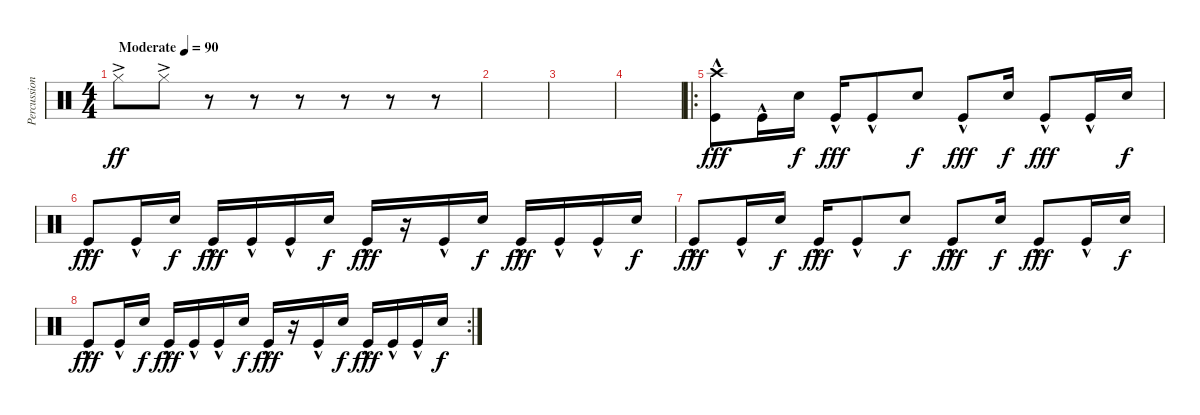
\track ("Percussion" "Percussion") {instrument percussion}
\staff {score}
\articulation defaults
\ts (4 4)
\tempo (90 "Moderate")
\clef neutral
\ks c "Hi-Hat (closed)"{ac}.8{dy ff} "Hi-Hat (closed)"{ac}.8
r.8 r.8 r.8 r.8 r.8 r.8 |
|
|
|
\ro
("Crash high (hit)" "Kick (hit)"{hac}).8{dy fff} "Kick (hit)"{hac}.16 "Electric Snare (hit)".16{dy f} "Kick (hit)"{hac}.16{dy fff} "Kick (hit)"{hac}.8 "Electric Snare (hit)".8{dy f} "Kick (hit)"{hac}.8{dy fff} "Electric Snare (hit)".16{dy f} "Kick (hit)"{hac}.8{dy fff} "Kick (hit)"{hac}.16 "Electric Snare (hit)".16{dy f} |
"Kick (hit)"{hac}.8{dy fff} "Kick (hit)"{hac}.16 "Electric Snare (hit)".16{dy f} "Kick (hit)"{hac}.16{dy fff} "Kick (hit)"{hac}.16 "Kick (hit)"{hac}.16 "Electric Snare (hit)".16{dy f} "Kick (hit)"{hac}.16{dy fff} r.16 "Kick (hit)"{hac}.16 "Electric Snare (hit)".16{dy f} "Kick (hit)"{hac}.16{dy fff} "Kick (hit)"{hac}.16 "Kick (hit)"{hac}.16 "Electric Snare (hit)".16{dy f} |
"Kick (hit)"{hac}.8{dy fff} "Kick (hit)"{hac}.16 "Electric Snare (hit)".16{dy f} "Kick (hit)"{hac}.16{dy fff} "Kick (hit)"{hac}.8 "Electric Snare (hit)".8{dy f} "Kick (hit)"{hac}.8{dy fff} "Electric Snare (hit)".16{dy f} "Kick (hit)"{hac}.8{dy fff} "Kick (hit)"{hac}.16 "Electric Snare (hit)".16{dy f} |
\rc 2 "Kick (hit)"{hac}.8{dy fff} "Kick (hit)"{hac}.16 "Electric Snare (hit)".16{dy f} "Kick (hit)"{hac}.16{dy fff} "Kick (hit)"{hac}.16 "Kick (hit)"{hac}.16 "Electric Snare (hit)".16{dy f} "Kick (hit)"{hac}.16{dy fff}
r.16 "Kick (hit)"{hac}.16 "Electric Snare (hit)".16{dy f} "Kick (hit)"{hac}.16{dy fff} "Kick (hit)"{hac}.16 "Kick (hit)"{hac}.16 "Electric Snare (hit)".16{dy f}
